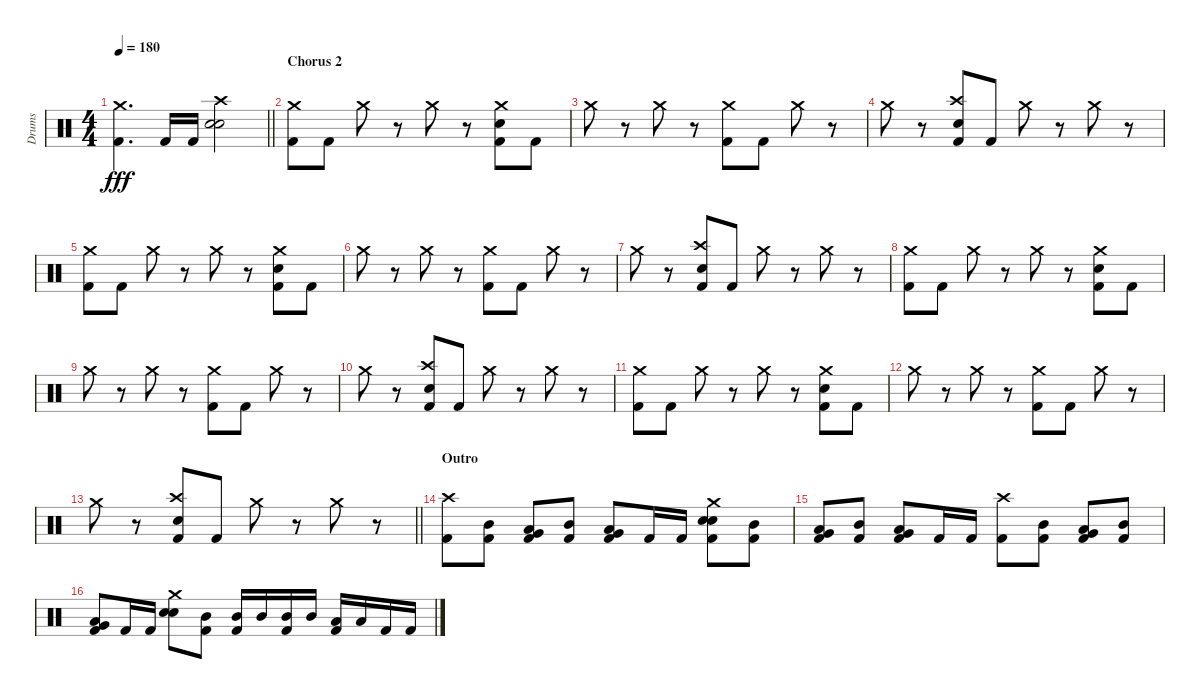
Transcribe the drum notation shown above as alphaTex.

\track ("Drums " "Drums ") {instrument percussion}
\staff {score}
\articulation defaults
\ts (4 4)
\tempo 180
\clef neutral
\barLineRight lightlight
\ks c
("Crash medium (hit)" "Kick (hit) 2").4{d dy fff} "Kick (hit) 2".16 "Kick (hit) 2".16 ("Crash high (hit)" "Electric Snare (hit)" "Snare (hit) 2").2 |
\section ("" "Chorus 2")
("Crash medium (hit)" "Kick (hit) 2").8 "Kick (hit) 2".8 "Crash medium (hit)".8 r.8 "Crash medium (hit)".8 r.8 ("Crash medium (hit)" "Snare (hit) 2" "Kick (hit) 2").8 "Kick (hit) 2".8 |
"Crash medium (hit)".8 r.8 "Crash medium (hit)".8 r.8 ("Crash medium (hit)" "Kick (hit) 2").8 "Kick (hit) 2".8 "Crash medium (hit)".8 r.8 |
"Crash medium (hit)".8 r.8 ("Crash high (hit)" "Snare (hit) 2" "Kick (hit) 2").8 "Kick (hit) 2".8 "Crash medium (hit)".8 r.8 "Crash medium (hit)".8 r.8 |
("Crash medium (hit)" "Kick (hit) 2").8 "Kick (hit) 2".8 "Crash medium (hit)".8 r.8 "Crash medium (hit)".8 r.8 ("Crash medium (hit)" "Snare (hit) 2" "Kick (hit) 2").8 "Kick (hit) 2".8 |
"Crash medium (hit)".8 r.8 "Crash medium (hit)".8 r.8 ("Crash medium (hit)" "Kick (hit) 2").8 "Kick (hit) 2".8 "Crash medium (hit)".8 r.8 |
"Crash medium (hit)".8 r.8 ("Crash high (hit)" "Snare (hit) 2" "Kick (hit) 2").8 "Kick (hit) 2".8 "Crash medium (hit)".8 r.8 "Crash medium (hit)".8 r.8 |
("Crash medium (hit)" "Kick (hit) 2").8 "Kick (hit) 2".8 "Crash medium (hit)".8 r.8 "Crash medium (hit)".8 r.8 ("Crash medium (hit)" "Snare (hit) 2" "Kick (hit) 2").8 "Kick (hit) 2".8 |
"Crash medium (hit)".8 r.8 "Crash medium (hit)".8 r.8 ("Crash medium (hit)" "Kick (hit) 2").8 "Kick (hit) 2".8 "Crash medium (hit)".8 r.8 |
"Crash medium (hit)".8 r.8 ("Crash high (hit)" "Snare (hit) 2" "Kick (hit) 2").8 "Kick (hit) 2".8 "Crash medium (hit)".8 r.8 "Crash medium (hit)".8 r.8 |
("Crash medium (hit)" "Kick (hit) 2").8 "Kick (hit) 2".8 "Crash medium (hit)".8 r.8 "Crash medium (hit)".8 r.8 ("Crash medium (hit)" "Snare (hit) 2" "Kick (hit) 2").8 "Kick (hit) 2".8 |
"Crash medium (hit)".8 r.8 "Crash medium (hit)".8 r.8 ("Crash medium (hit)" "Kick (hit) 2").8 "Kick (hit) 2".8 "Crash medium (hit)".8 r.8 |
\barLineRight lightlight "Crash medium (hit)".8
r.8 ("Crash high (hit)" "Snare (hit) 2" "Kick (hit) 2").8 "Kick (hit) 2".8 "Crash medium (hit)".8 r.8 "Crash medium (hit)".8 r.8 |
\section ("" "Outro ")
("Crash high (hit)" "Kick (hit) 2").8 ("Mid Tom (hit)" "Kick (hit) 2").8 ("Very Low Tom (hit)" "Low Tom (hit)" "Kick (hit) 2").8 ("Mid Tom (hit)" "Kick (hit) 2").8 ("Very Low Tom (hit)" "Low Tom (hit)" "Kick (hit) 2").8 "Kick (hit) 2".16 "Kick (hit) 2".16 ("Crash medium (hit)" "Electric Snare (hit)" "Snare (hit) 2" "Kick (hit) 2").8 ("Mid Tom (hit)" "Kick (hit) 2").8 |
("Very Low Tom (hit)" "Low Tom (hit)" "Kick (hit) 2").8 ("Mid Tom (hit)" "Kick (hit) 2").8 ("Very Low Tom (hit)" "Low Tom (hit)" "Kick (hit) 2").8 "Kick (hit) 2".16 "Kick (hit) 2".16 ("Crash high (hit)" "Kick (hit) 2").8 ("Mid Tom (hit)" "Kick (hit) 2").8 ("Low Tom (hit)" "Very Low Tom (hit)" "Kick (hit) 2").8 ("Mid Tom (hit)" "Kick (hit) 2").8 |
("Low Tom (hit)" "Very Low Tom (hit)" "Kick (hit) 2").8 "Kick (hit) 2".16 "Kick (hit) 2".16 ("Crash medium (hit)" "Electric Snare (hit)" "Snare (hit) 2").8 ("Mid Tom (hit)" "Kick (hit) 2").8 ("Mid Tom (hit)" "Kick (hit) 2").16 "Mid Tom (hit)".16 ("Mid Tom (hit)" "Kick (hit) 2").16 "Mid Tom (hit)".16 ("Low Tom (hit)" "Kick (hit) 2").16 "Low Tom (hit)".16 "Kick (hit) 2".16 "Kick (hit) 2".16
